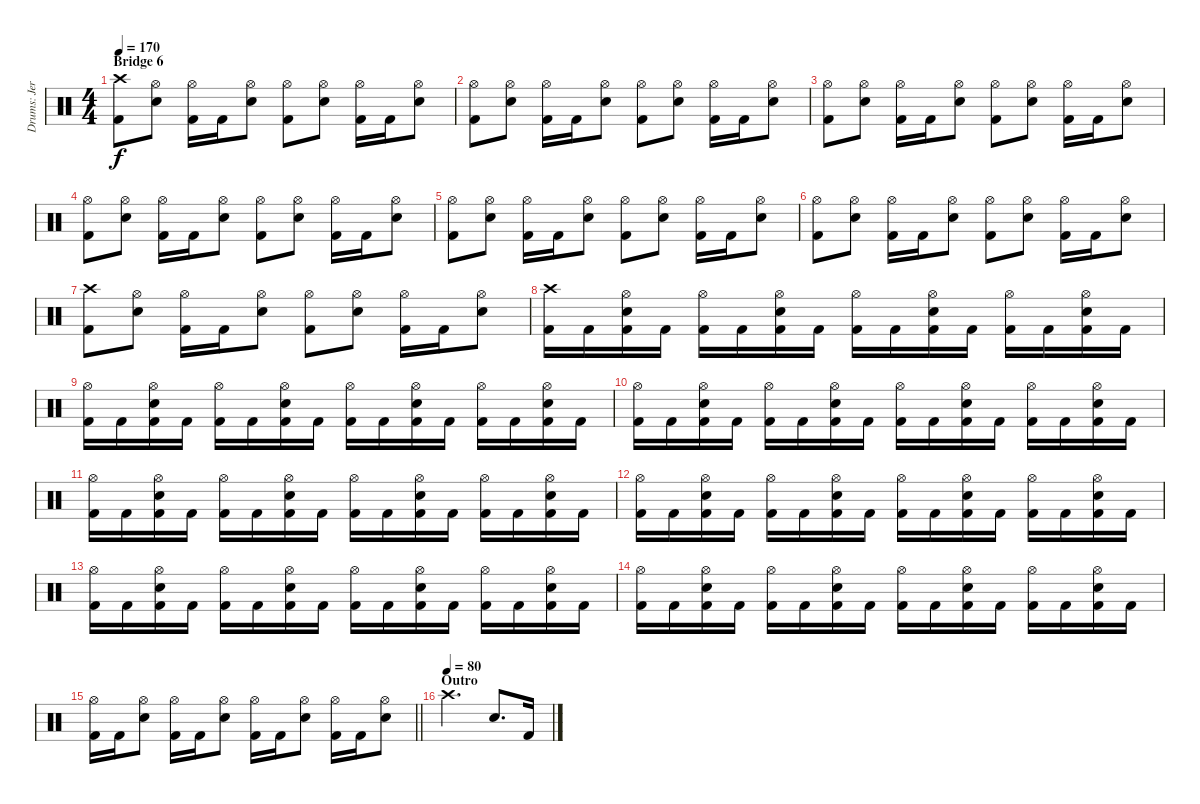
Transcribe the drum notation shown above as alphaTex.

\track ("Drums: Jere Luokkamäki" "Drums: Jer") {instrument percussion}
\staff {score}
\articulation defaults
\ts (4 4)
\section ("" "Bridge 6")
\tempo 170
\clef neutral
\ks aminor
("Crash high (hit)" "Kick (hit) 2").8{dy f} ("Hi-Hat (open)" "Electric Snare (hit)").8 ("Hi-Hat (open)" "Kick (hit) 2").16 "Kick (hit) 2".16 ("Hi-Hat (open)" "Electric Snare (hit)").8 ("Hi-Hat (open)" "Kick (hit) 2").8 ("Hi-Hat (open)" "Electric Snare (hit)").8 ("Hi-Hat (open)" "Kick (hit) 2").16 "Kick (hit) 2".16 ("Hi-Hat (open)" "Electric Snare (hit)").8 |
("Hi-Hat (open)" "Kick (hit) 2").8 ("Hi-Hat (open)" "Electric Snare (hit)").8 ("Hi-Hat (open)" "Kick (hit) 2").16 "Kick (hit) 2".16 ("Hi-Hat (open)" "Electric Snare (hit)").8 ("Hi-Hat (open)" "Kick (hit) 2").8 ("Hi-Hat (open)" "Electric Snare (hit)").8 ("Hi-Hat (open)" "Kick (hit) 2").16 "Kick (hit) 2".16 ("Hi-Hat (open)" "Electric Snare (hit)").8 |
("Hi-Hat (open)" "Kick (hit) 2").8 ("Hi-Hat (open)" "Electric Snare (hit)").8 ("Hi-Hat (open)" "Kick (hit) 2").16 "Kick (hit) 2".16 ("Hi-Hat (open)" "Electric Snare (hit)").8 ("Hi-Hat (open)" "Kick (hit) 2").8 ("Hi-Hat (open)" "Electric Snare (hit)").8 ("Hi-Hat (open)" "Kick (hit) 2").16 "Kick (hit) 2".16 ("Hi-Hat (open)" "Electric Snare (hit)").8 |
("Hi-Hat (open)" "Kick (hit) 2").8 ("Hi-Hat (open)" "Electric Snare (hit)").8 ("Hi-Hat (open)" "Kick (hit) 2").16 "Kick (hit) 2".16 ("Hi-Hat (open)" "Electric Snare (hit)").8 ("Hi-Hat (open)" "Kick (hit) 2").8 ("Hi-Hat (open)" "Electric Snare (hit)").8 ("Hi-Hat (open)" "Kick (hit) 2").16 "Kick (hit) 2".16 ("Hi-Hat (open)" "Electric Snare (hit)").8 |
("Hi-Hat (open)" "Kick (hit) 2").8 ("Hi-Hat (open)" "Electric Snare (hit)").8 ("Hi-Hat (open)" "Kick (hit) 2").16 "Kick (hit) 2".16 ("Hi-Hat (open)" "Electric Snare (hit)").8 ("Hi-Hat (open)" "Kick (hit) 2").8 ("Hi-Hat (open)" "Electric Snare (hit)").8 ("Hi-Hat (open)" "Kick (hit) 2").16 "Kick (hit) 2".16 ("Hi-Hat (open)" "Electric Snare (hit)").8 |
("Hi-Hat (open)" "Kick (hit) 2").8 ("Hi-Hat (open)" "Electric Snare (hit)").8 ("Hi-Hat (open)" "Kick (hit) 2").16 "Kick (hit) 2".16 ("Hi-Hat (open)" "Electric Snare (hit)").8 ("Hi-Hat (open)" "Kick (hit) 2").8 ("Hi-Hat (open)" "Electric Snare (hit)").8 ("Hi-Hat (open)" "Kick (hit) 2").16 "Kick (hit) 2".16 ("Hi-Hat (open)" "Electric Snare (hit)").8 |
("Crash high (hit)" "Kick (hit) 2").8 ("Hi-Hat (open)" "Electric Snare (hit)").8 ("Hi-Hat (open)" "Kick (hit) 2").16 "Kick (hit) 2".16 ("Hi-Hat (open)" "Electric Snare (hit)").8 ("Hi-Hat (open)" "Kick (hit) 2").8 ("Hi-Hat (open)" "Electric Snare (hit)").8 ("Hi-Hat (open)" "Kick (hit) 2").16 "Kick (hit) 2".16 ("Hi-Hat (open)" "Electric Snare (hit)").8 |
("Crash high (hit)" "Kick (hit) 2").16 "Kick (hit) 2".16 ("Hi-Hat (open)" "Electric Snare (hit)" "Kick (hit) 2").16 "Kick (hit) 2".16 ("Hi-Hat (open)" "Kick (hit) 2").16 "Kick (hit) 2".16 ("Hi-Hat (open)" "Electric Snare (hit)" "Kick (hit) 2").16 "Kick (hit) 2".16 ("Hi-Hat (open)" "Kick (hit) 2").16 "Kick (hit) 2".16 ("Hi-Hat (open)" "Electric Snare (hit)" "Kick (hit) 2").16 "Kick (hit) 2".16 ("Hi-Hat (open)" "Kick (hit) 2").16 "Kick (hit) 2".16 ("Hi-Hat (open)" "Electric Snare (hit)" "Kick (hit) 2").16 "Kick (hit) 2".16 |
("Hi-Hat (open)" "Kick (hit) 2").16 "Kick (hit) 2".16 ("Hi-Hat (open)" "Electric Snare (hit)" "Kick (hit) 2").16 "Kick (hit) 2".16 ("Hi-Hat (open)" "Kick (hit) 2").16 "Kick (hit) 2".16 ("Hi-Hat (open)" "Electric Snare (hit)" "Kick (hit) 2").16 "Kick (hit) 2".16 ("Hi-Hat (open)" "Kick (hit) 2").16 "Kick (hit) 2".16 ("Hi-Hat (open)" "Electric Snare (hit)" "Kick (hit) 2").16 "Kick (hit) 2".16 ("Hi-Hat (open)" "Kick (hit) 2").16 "Kick (hit) 2".16 ("Hi-Hat (open)" "Electric Snare (hit)" "Kick (hit) 2").16 "Kick (hit) 2".16 |
("Hi-Hat (open)" "Kick (hit) 2").16 "Kick (hit) 2".16 ("Hi-Hat (open)" "Electric Snare (hit)" "Kick (hit) 2").16 "Kick (hit) 2".16 ("Hi-Hat (open)" "Kick (hit) 2").16 "Kick (hit) 2".16 ("Hi-Hat (open)" "Electric Snare (hit)" "Kick (hit) 2").16 "Kick (hit) 2".16 ("Hi-Hat (open)" "Kick (hit) 2").16 "Kick (hit) 2".16 ("Hi-Hat (open)" "Electric Snare (hit)" "Kick (hit) 2").16 "Kick (hit) 2".16 ("Hi-Hat (open)" "Kick (hit) 2").16 "Kick (hit) 2".16 ("Hi-Hat (open)" "Electric Snare (hit)" "Kick (hit) 2").16 "Kick (hit) 2".16 |
("Hi-Hat (open)" "Kick (hit) 2").16 "Kick (hit) 2".16 ("Hi-Hat (open)" "Electric Snare (hit)" "Kick (hit) 2").16 "Kick (hit) 2".16 ("Hi-Hat (open)" "Kick (hit) 2").16 "Kick (hit) 2".16 ("Hi-Hat (open)" "Electric Snare (hit)" "Kick (hit) 2").16 "Kick (hit) 2".16 ("Hi-Hat (open)" "Kick (hit) 2").16 "Kick (hit) 2".16 ("Hi-Hat (open)" "Electric Snare (hit)" "Kick (hit) 2").16 "Kick (hit) 2".16 ("Hi-Hat (open)" "Kick (hit) 2").16 "Kick (hit) 2".16 ("Hi-Hat (open)" "Electric Snare (hit)" "Kick (hit) 2").16 "Kick (hit) 2".16 |
("Hi-Hat (open)" "Kick (hit) 2").16 "Kick (hit) 2".16 ("Hi-Hat (open)" "Electric Snare (hit)" "Kick (hit) 2").16 "Kick (hit) 2".16 ("Hi-Hat (open)" "Kick (hit) 2").16 "Kick (hit) 2".16 ("Hi-Hat (open)" "Electric Snare (hit)" "Kick (hit) 2").16 "Kick (hit) 2".16 ("Hi-Hat (open)" "Kick (hit) 2").16 "Kick (hit) 2".16 ("Hi-Hat (open)" "Electric Snare (hit)" "Kick (hit) 2").16 "Kick (hit) 2".16 ("Hi-Hat (open)" "Kick (hit) 2").16 "Kick (hit) 2".16 ("Hi-Hat (open)" "Electric Snare (hit)" "Kick (hit) 2").16 "Kick (hit) 2".16 |
("Hi-Hat (open)" "Kick (hit) 2").16 "Kick (hit) 2".16 ("Hi-Hat (open)" "Electric Snare (hit)" "Kick (hit) 2").16 "Kick (hit) 2".16 ("Hi-Hat (open)" "Kick (hit) 2").16 "Kick (hit) 2".16 ("Hi-Hat (open)" "Electric Snare (hit)" "Kick (hit) 2").16 "Kick (hit) 2".16 ("Hi-Hat (open)" "Kick (hit) 2").16 "Kick (hit) 2".16 ("Hi-Hat (open)" "Electric Snare (hit)" "Kick (hit) 2").16 "Kick (hit) 2".16 ("Hi-Hat (open)" "Kick (hit) 2").16 "Kick (hit) 2".16 ("Hi-Hat (open)" "Electric Snare (hit)" "Kick (hit) 2").16 "Kick (hit) 2".16 |
("Hi-Hat (open)" "Kick (hit) 2").16 "Kick (hit) 2".16 ("Hi-Hat (open)" "Electric Snare (hit)" "Kick (hit) 2").16 "Kick (hit) 2".16 ("Hi-Hat (open)" "Kick (hit) 2").16 "Kick (hit) 2".16 ("Hi-Hat (open)" "Electric Snare (hit)" "Kick (hit) 2").16 "Kick (hit) 2".16 ("Hi-Hat (open)" "Kick (hit) 2").16 "Kick (hit) 2".16 ("Hi-Hat (open)" "Electric Snare (hit)" "Kick (hit) 2").16 "Kick (hit) 2".16 ("Hi-Hat (open)" "Kick (hit) 2").16 "Kick (hit) 2".16 ("Hi-Hat (open)" "Electric Snare (hit)" "Kick (hit) 2").16 "Kick (hit) 2".16 |
\barLineRight lightlight
("Hi-Hat (open)" "Kick (hit) 2").16 "Kick (hit) 2".16 ("Hi-Hat (open)" "Electric Snare (hit)").8 ("Hi-Hat (open)" "Kick (hit) 2").16 "Kick (hit) 2".16 ("Hi-Hat (open)" "Electric Snare (hit)").8 ("Hi-Hat (open)" "Kick (hit) 2").16 "Kick (hit) 2".16 ("Hi-Hat (open)" "Electric Snare (hit)").8 ("Hi-Hat (open)" "Kick (hit) 2").16 "Kick (hit) 2".16 ("Hi-Hat (open)" "Electric Snare (hit)").8 |
\section ("" "Outro")
\tempo (80)
"Crash high (hit)".2{d} "Electric Snare (hit)".8{d} "Kick (hit) 2".16
